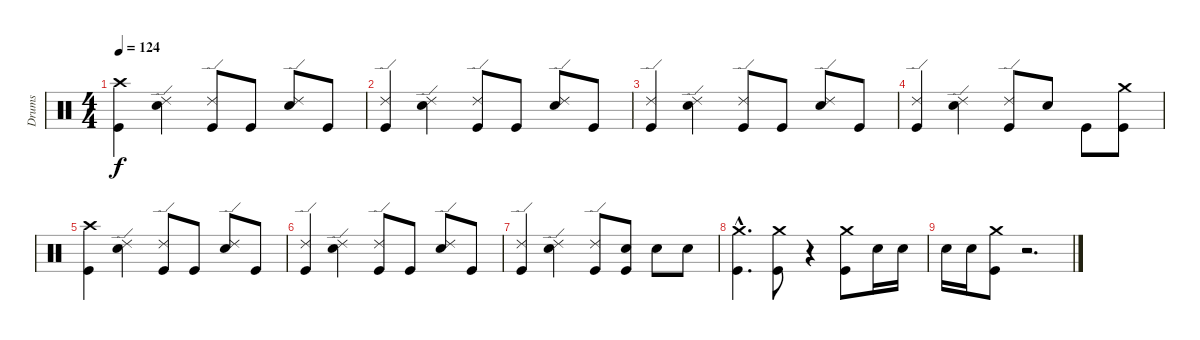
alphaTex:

\track ("Drums" "Drums") {instrument percussion}
\staff {score}
\articulation defaults
\ts (4 4)
\tempo 124
\clef neutral
\ks c
("Crash high (hit)" "Kick (hit)").4{dy f} ("Ride (edge) 2" "Snare (hit) 2").4 ("Ride (edge) 2" "Kick (hit)").8 "Kick (hit)".8 ("Ride (edge) 2" "Snare (hit) 2").8 "Kick (hit)".8 |
("Ride (edge) 2" "Kick (hit)").4 ("Ride (edge) 2" "Snare (hit) 2").4 ("Ride (edge) 2" "Kick (hit)").8 "Kick (hit)".8 ("Ride (edge) 2" "Snare (hit) 2").8 "Kick (hit)".8 |
("Ride (edge) 2" "Kick (hit)").4 ("Ride (edge) 2" "Snare (hit) 2").4 ("Ride (edge) 2" "Kick (hit)").8 "Kick (hit)".8 ("Ride (edge) 2" "Snare (hit) 2").8 "Kick (hit)".8 |
("Ride (edge) 2" "Kick (hit)").4 ("Ride (edge) 2" "Snare (hit) 2").4 ("Ride (edge) 2" "Kick (hit)").8 "Snare (hit) 2".8 "Kick (hit)".8 ("Crash medium (hit)" "Kick (hit)").8 |
("Crash high (hit)" "Kick (hit)").4 ("Ride (edge) 2" "Snare (hit) 2").4 ("Ride (edge) 2" "Kick (hit)").8 "Kick (hit)".8 ("Ride (edge) 2" "Snare (hit) 2").8 "Kick (hit)".8 |
("Ride (edge) 2" "Kick (hit)").4 ("Ride (edge) 2" "Snare (hit) 2").4 ("Ride (edge) 2" "Kick (hit)").8 "Kick (hit)".8 ("Ride (edge) 2" "Snare (hit) 2").8 "Kick (hit)".8 |
("Ride (edge) 2" "Kick (hit)").4 ("Ride (edge) 2" "Snare (hit) 2").4 ("Ride (edge) 2" "Kick (hit)").8 ("Snare (hit) 2" "Kick (hit)").8 "Snare (hit) 2".8 "Snare (hit) 2".8 |
("Crash medium (hit)"{hac} "Kick (hit)"{hac}).4{d} ("Crash medium (hit)" "Kick (hit)").8 r.4 ("Crash medium (hit)" "Kick (hit)").8 "Snare (hit) 2".16 "Snare (hit) 2".16 |
"Snare (hit) 2".16 "Snare (hit) 2".16 ("Crash medium (hit)" "Kick (hit)").8 r.2{d}
